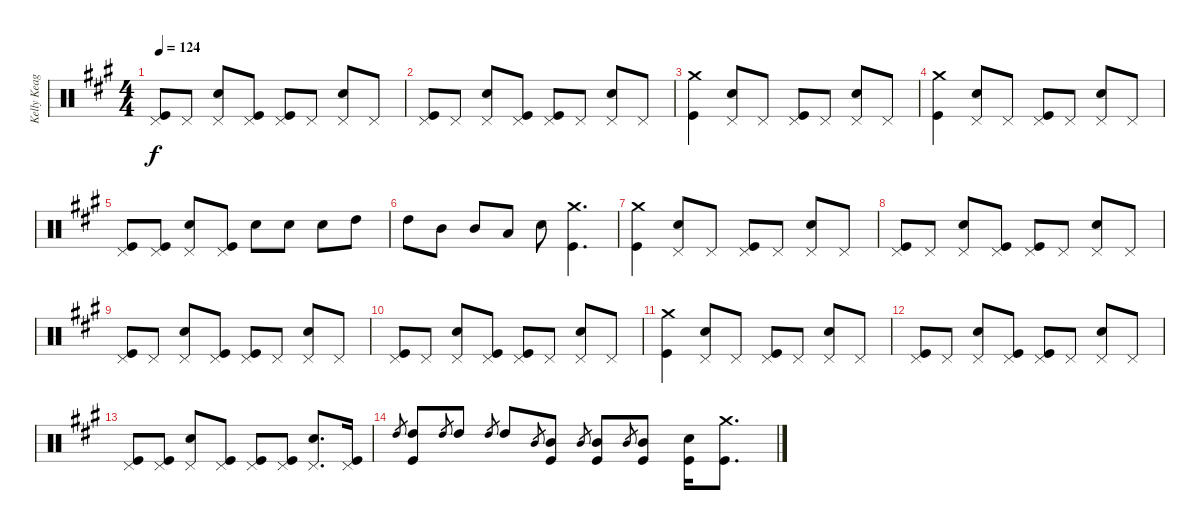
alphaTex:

\track ("Kelly Keagy" "Kelly Keag") {instrument percussion}
\staff {score}
\articulation defaults
\ts (4 4)
\tempo 124
\clef neutral
\ks a
("Pedal Hi-Hat (hit)" "Kick (hit)").8{dy f} "Pedal Hi-Hat (hit)".8 ("Pedal Hi-Hat (hit)" "Snare (hit) 2").8 ("Pedal Hi-Hat (hit)" "Kick (hit)").8 ("Pedal Hi-Hat (hit)" "Kick (hit)").8 "Pedal Hi-Hat (hit)".8 ("Pedal Hi-Hat (hit)" "Snare (hit) 2").8 "Pedal Hi-Hat (hit)".8 |
("Pedal Hi-Hat (hit)" "Kick (hit)").8 "Pedal Hi-Hat (hit)".8 ("Pedal Hi-Hat (hit)" "Snare (hit) 2").8 ("Pedal Hi-Hat (hit)" "Kick (hit)").8 ("Pedal Hi-Hat (hit)" "Kick (hit)").8 "Pedal Hi-Hat (hit)".8 ("Pedal Hi-Hat (hit)" "Snare (hit) 2").8 "Pedal Hi-Hat (hit)".8 |
("Crash medium (hit)" "Kick (hit)").4 ("Pedal Hi-Hat (hit)" "Snare (hit) 2").8 "Pedal Hi-Hat (hit)".8 ("Pedal Hi-Hat (hit)" "Kick (hit)").8 "Pedal Hi-Hat (hit)".8 ("Pedal Hi-Hat (hit)" "Snare (hit) 2").8 "Pedal Hi-Hat (hit)".8 |
("Crash medium (hit)" "Kick (hit)").4 ("Pedal Hi-Hat (hit)" "Snare (hit) 2").8 "Pedal Hi-Hat (hit)".8 ("Pedal Hi-Hat (hit)" "Kick (hit)").8 "Pedal Hi-Hat (hit)".8 ("Pedal Hi-Hat (hit)" "Snare (hit) 2").8 "Pedal Hi-Hat (hit)".8 |
("Pedal Hi-Hat (hit)" "Kick (hit)").8 ("Pedal Hi-Hat (hit)" "Kick (hit)").8 ("Pedal Hi-Hat (hit)" "Snare (hit) 2").8 ("Pedal Hi-Hat (hit)" "Kick (hit)").8 "Snare (hit) 2".8 "Snare (hit) 2".8 "Snare (hit) 2".8 "High Tom (hit)".8 |
"High Tom (hit)".8 "Mid Tom (hit)".8 "Mid Tom (hit)".8 "Low Tom (hit)".8 "Snare (hit) 2".8 ("Crash medium (hit)" "Kick (hit)").4{d} |
("Crash medium (hit)" "Kick (hit)").4 ("Pedal Hi-Hat (hit)" "Snare (hit) 2").8 "Pedal Hi-Hat (hit)".8 ("Pedal Hi-Hat (hit)" "Kick (hit)").8 "Pedal Hi-Hat (hit)".8 ("Pedal Hi-Hat (hit)" "Snare (hit) 2").8 "Pedal Hi-Hat (hit)".8 |
("Pedal Hi-Hat (hit)" "Kick (hit)").8 "Pedal Hi-Hat (hit)".8 ("Pedal Hi-Hat (hit)" "Snare (hit) 2").8 ("Pedal Hi-Hat (hit)" "Kick (hit)").8 ("Pedal Hi-Hat (hit)" "Kick (hit)").8 "Pedal Hi-Hat (hit)".8 ("Pedal Hi-Hat (hit)" "Snare (hit) 2").8 "Pedal Hi-Hat (hit)".8 |
("Pedal Hi-Hat (hit)" "Kick (hit)").8 "Pedal Hi-Hat (hit)".8 ("Pedal Hi-Hat (hit)" "Snare (hit) 2").8 ("Pedal Hi-Hat (hit)" "Kick (hit)").8 ("Pedal Hi-Hat (hit)" "Kick (hit)").8 "Pedal Hi-Hat (hit)".8 ("Pedal Hi-Hat (hit)" "Snare (hit) 2").8 "Pedal Hi-Hat (hit)".8 |
("Pedal Hi-Hat (hit)" "Kick (hit)").8{volume 0} "Pedal Hi-Hat (hit)".8 ("Pedal Hi-Hat (hit)" "Snare (hit) 2").8 ("Pedal Hi-Hat (hit)" "Kick (hit)").8 ("Pedal Hi-Hat (hit)" "Kick (hit)").8 "Pedal Hi-Hat (hit)".8 ("Pedal Hi-Hat (hit)" "Snare (hit) 2").8 "Pedal Hi-Hat (hit)".8 |
("Crash medium (hit)" "Kick (hit)").4 ("Pedal Hi-Hat (hit)" "Snare (hit) 2").8 "Pedal Hi-Hat (hit)".8 ("Pedal Hi-Hat (hit)" "Kick (hit)").8 "Pedal Hi-Hat (hit)".8 ("Pedal Hi-Hat (hit)" "Snare (hit) 2").8 "Pedal Hi-Hat (hit)".8 |
("Pedal Hi-Hat (hit)" "Kick (hit)").8 "Pedal Hi-Hat (hit)".8 ("Pedal Hi-Hat (hit)" "Snare (hit) 2").8 ("Pedal Hi-Hat (hit)" "Kick (hit)").8 ("Pedal Hi-Hat (hit)" "Kick (hit)").8 "Pedal Hi-Hat (hit)".8 ("Pedal Hi-Hat (hit)" "Snare (hit) 2").8 "Pedal Hi-Hat (hit)".8 |
("Pedal Hi-Hat (hit)" "Kick (hit)").8 ("Pedal Hi-Hat (hit)" "Kick (hit)").8 ("Pedal Hi-Hat (hit)" "Snare (hit) 2").8 ("Pedal Hi-Hat (hit)" "Kick (hit)").8 ("Pedal Hi-Hat (hit)" "Kick (hit)").8 ("Pedal Hi-Hat (hit)" "Kick (hit)").8 ("Pedal Hi-Hat (hit)" "Snare (hit) 2").8{d} ("Pedal Hi-Hat (hit)" "Kick (hit)").16 |
"High Tom (hit)".8{gr} ("High Tom (hit)" "Kick (hit)").8 "High Tom (hit)".8{gr} "High Tom (hit)".8 "High Tom (hit)".8{gr} "High Tom (hit)".8 "Mid Tom (hit)".8{gr} ("Mid Tom (hit)" "Kick (hit)").8 "Mid Tom (hit)".8{gr} ("Mid Tom (hit)" "Kick (hit)").8 "Mid Tom (hit)".8{gr} ("Mid Tom (hit)" "Kick (hit)").8 ("Snare (hit) 2" "Kick (hit)").16 ("Crash medium (hit)" "Kick (hit)").8{d}
